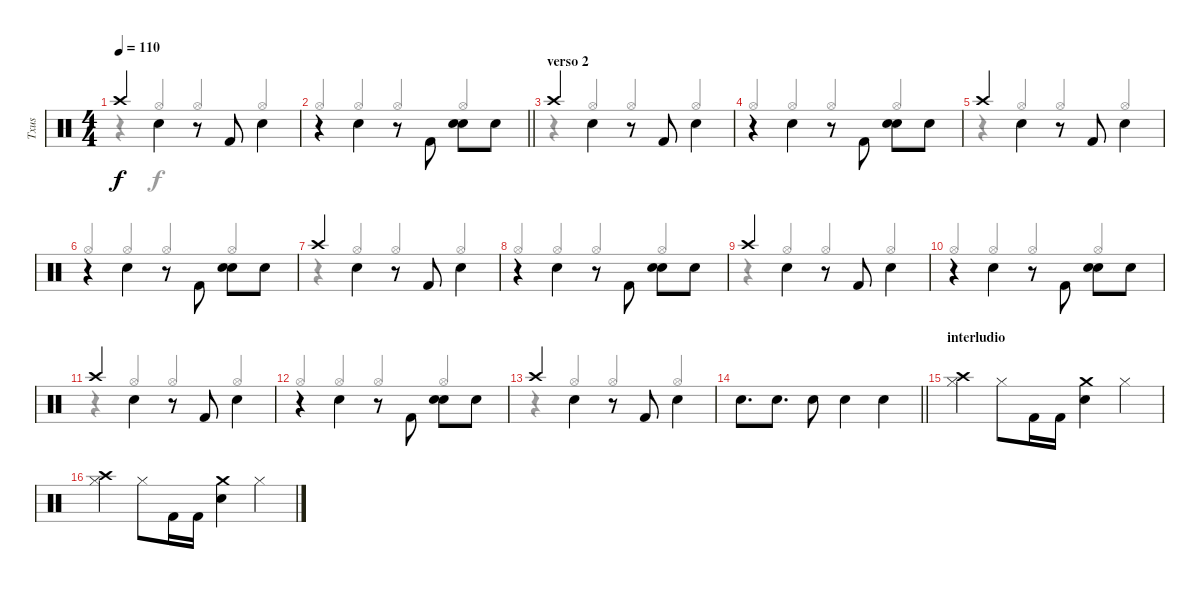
\track ("Txus" "Txus") {instrument percussion}
\staff {score}
\articulation defaults
\voice
\ts (4 4)
\tempo 110
\clef neutral
\ks c "Crash high (hit)".4{dy f} "Snare (hit) 2".4{beam Down}
r.8 "Kick (hit) 2".8 "Snare (hit) 2".4{beam Down} |
\barLineRight lightlight
r.4 "Snare (hit) 2".4{beam Down} r.8 "Kick (hit) 2".8{beam Down} ("Snare (hit) 2" "Snare (hit) 2").8{beam Down} "Snare (hit) 2".8 |
\section ("" "verso 2")
"Crash high (hit)".4 "Snare (hit) 2".4{beam Down} r.8 "Kick (hit) 2".8 "Snare (hit) 2".4{beam Down} |
r.4 "Snare (hit) 2".4{beam Down} r.8 "Kick (hit) 2".8{beam Down} ("Snare (hit) 2" "Snare (hit) 2").8{beam Down} "Snare (hit) 2".8 |
"Crash high (hit)".4 "Snare (hit) 2".4{beam Down} r.8 "Kick (hit) 2".8 "Snare (hit) 2".4{beam Down} |
r.4 "Snare (hit) 2".4{beam Down} r.8 "Kick (hit) 2".8{beam Down} ("Snare (hit) 2" "Snare (hit) 2").8{beam Down} "Snare (hit) 2".8 |
"Crash high (hit)".4 "Snare (hit) 2".4{beam Down} r.8 "Kick (hit) 2".8 "Snare (hit) 2".4{beam Down} |
r.4 "Snare (hit) 2".4{beam Down} r.8 "Kick (hit) 2".8{beam Down} ("Snare (hit) 2" "Snare (hit) 2").8{beam Down} "Snare (hit) 2".8 |
"Crash high (hit)".4 "Snare (hit) 2".4{beam Down} r.8 "Kick (hit) 2".8 "Snare (hit) 2".4{beam Down} |
r.4 "Snare (hit) 2".4{beam Down} r.8 "Kick (hit) 2".8{beam Down} ("Snare (hit) 2" "Snare (hit) 2").8{beam Down} "Snare (hit) 2".8 |
"Crash high (hit)".4 "Snare (hit) 2".4{beam Down} r.8 "Kick (hit) 2".8 "Snare (hit) 2".4{beam Down} |
r.4 "Snare (hit) 2".4{beam Down} r.8 "Kick (hit) 2".8{beam Down} ("Snare (hit) 2" "Snare (hit) 2").8{beam Down} "Snare (hit) 2".8 |
"Crash high (hit)".4 "Snare (hit) 2".4{beam Down} r.8 "Kick (hit) 2".8 "Snare (hit) 2".4{beam Down} |
\barLineRight lightlight "Snare (hit) 2".8{d} "Snare (hit) 2".8{d} "Snare (hit) 2".8 "Snare (hit) 2".4 "Snare (hit) 2".4
|
\section ("" "interludio")
("Crash high (hit)" "Hi-Hat (closed)").4 "Hi-Hat (closed)".8 "Kick (hit) 2".16 "Kick (hit) 2".16 ("Crash medium (hit)" "Snare (hit) 2").4 "Hi-Hat (closed)".4 |
("Crash high (hit)" "Hi-Hat (closed)").4 "Hi-Hat (closed)".8 "Kick (hit) 2".16 "Kick (hit) 2".16 ("Crash medium (hit)" "Snare (hit) 2").4 "Hi-Hat (closed)".4
\voice
\clef neutral
\ottava regular
\simile none
\ks c
r.4{dy f beam Up} "Hi-Hat (open)".4{beam Up} "Hi-Hat (open)".4{beam Up} "Hi-Hat (open)".4{beam Up} |
\barLineRight lightlight "Hi-Hat (open)".4{beam Up} "Hi-Hat (open)".4{beam Up} "Hi-Hat (open)".4{beam Up} "Hi-Hat (open)".4{beam Up}
|
r.4{beam Up} "Hi-Hat (open)".4{beam Up} "Hi-Hat (open)".4{beam Up} "Hi-Hat (open)".4{beam Up} |
"Hi-Hat (open)".4{beam Up} "Hi-Hat (open)".4{beam Up} "Hi-Hat (open)".4{beam Up} "Hi-Hat (open)".4{beam Up} |
r.4{beam Up} "Hi-Hat (open)".4{beam Up} "Hi-Hat (open)".4{beam Up} "Hi-Hat (open)".4{beam Up} |
"Hi-Hat (open)".4{beam Up} "Hi-Hat (open)".4{beam Up} "Hi-Hat (open)".4{beam Up} "Hi-Hat (open)".4{beam Up} |
r.4{beam Up} "Hi-Hat (open)".4{beam Up} "Hi-Hat (open)".4{beam Up} "Hi-Hat (open)".4{beam Up} |
"Hi-Hat (open)".4{beam Up} "Hi-Hat (open)".4{beam Up} "Hi-Hat (open)".4{beam Up} "Hi-Hat (open)".4{beam Up} |
r.4{beam Up} "Hi-Hat (open)".4{beam Up} "Hi-Hat (open)".4{beam Up} "Hi-Hat (open)".4{beam Up} |
"Hi-Hat (open)".4{beam Up} "Hi-Hat (open)".4{beam Up} "Hi-Hat (open)".4{beam Up} "Hi-Hat (open)".4{beam Up} |
r.4{beam Up} "Hi-Hat (open)".4{beam Up} "Hi-Hat (open)".4{beam Up} "Hi-Hat (open)".4{beam Up} |
"Hi-Hat (open)".4{beam Up} "Hi-Hat (open)".4{beam Up} "Hi-Hat (open)".4{beam Up} "Hi-Hat (open)".4{beam Up} |
r.4{beam Up} "Hi-Hat (open)".4{beam Up} "Hi-Hat (open)".4{beam Up} "Hi-Hat (open)".4{beam Up} |
\barLineRight lightlight
|
|
